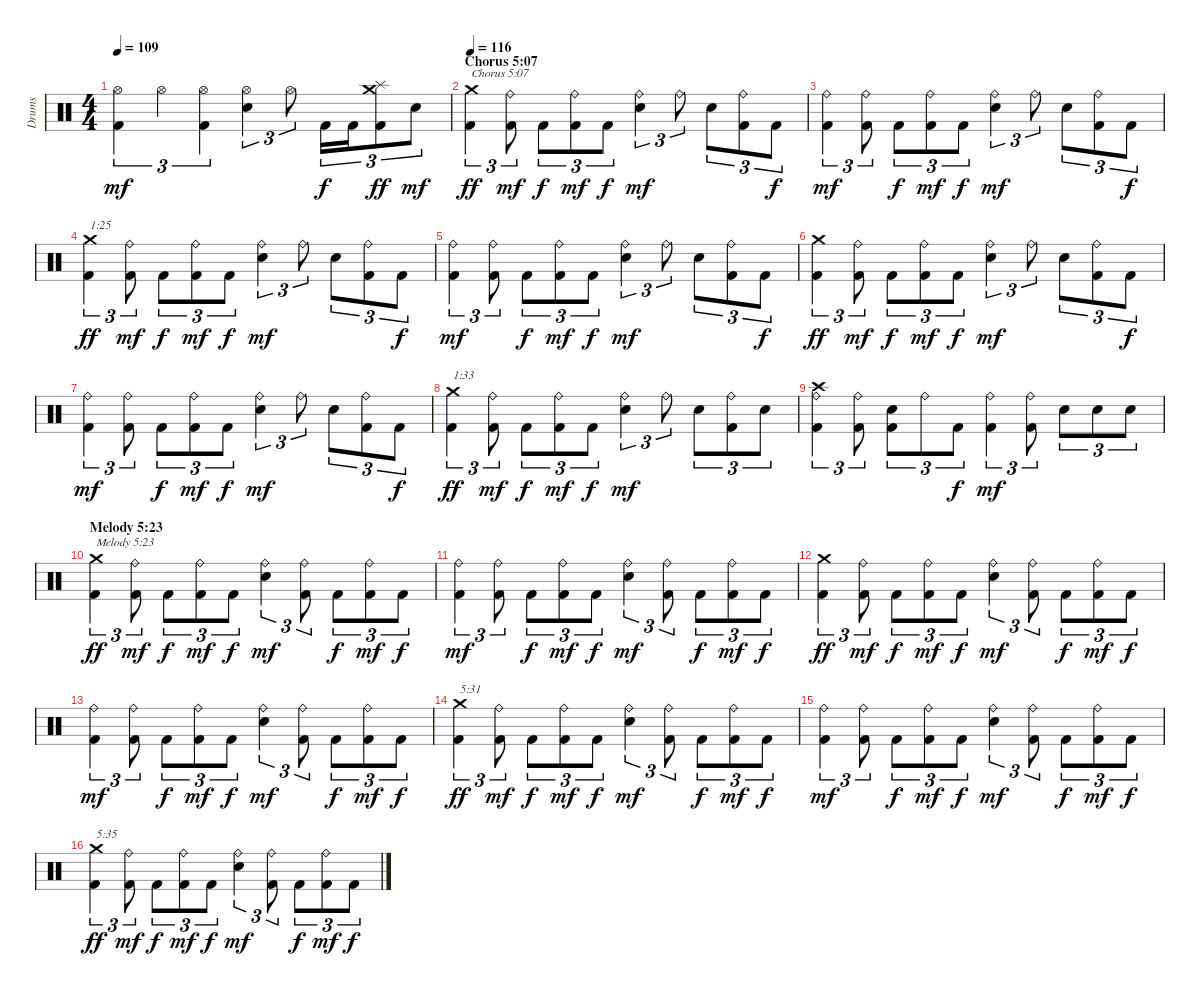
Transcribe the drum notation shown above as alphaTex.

\track ("Drums" "Drums") {instrument percussion}
\staff {score}
\articulation defaults
\ts (4 4)
\tempo 109
\clef neutral
\ks c
("Kick (hit) 2" "Hi-Hat (open)").4{tu (3 2) dy mf} "Hi-Hat (open)".4{tu (3 2)} ("Kick (hit) 2" "Hi-Hat (open)").4{tu (3 2)} ("Electric Snare (hit)" "Hi-Hat (open)").4{tu (3 2)} "Hi-Hat (open)".8{tu (3 2)} "Kick (hit) 2".16{tu (3 2) dy f} "Kick (hit) 2".16{tu (3 2)} ("Kick (hit) 2" "Splash (hit)" "Crash medium (hit)").8{tu (3 2) dy ff} "Electric Snare (hit)".8{tu (3 2) dy mf} |
\section ("" "Chorus 5:07")
\tempo 116
("Kick (hit) 2" "Crash medium (hit)").4{tu (3 2) txt "Chorus 5:07" dy ff} ("Kick (hit) 2" "Ride (bell)").8{tu (3 2) dy mf} "Kick (hit) 2".8{tu (3 2) dy f} ("Kick (hit) 2" "Ride (bell)").8{tu (3 2) dy mf} "Kick (hit) 2".8{tu (3 2) dy f} ("Electric Snare (hit)" "Ride (bell)").4{tu (3 2) dy mf} "Ride (bell)".8{tu (3 2)} "Electric Snare (hit)".8{tu (3 2)} ("Kick (hit) 2" "Ride (bell)").8{tu (3 2)} "Kick (hit) 2".8{tu (3 2) dy f} |
("Kick (hit) 2" "Ride (bell)").4{tu (3 2) dy mf} ("Kick (hit) 2" "Ride (bell)").8{tu (3 2)} "Kick (hit) 2".8{tu (3 2) dy f} ("Kick (hit) 2" "Ride (bell)").8{tu (3 2) dy mf} "Kick (hit) 2".8{tu (3 2) dy f} ("Electric Snare (hit)" "Ride (bell)").4{tu (3 2) dy mf} "Ride (bell)".8{tu (3 2)} "Electric Snare (hit)".8{tu (3 2)} ("Kick (hit) 2" "Ride (bell)").8{tu (3 2)} "Kick (hit) 2".8{tu (3 2) dy f} |
("Kick (hit) 2" "Crash medium (hit)").4{tu (3 2) txt "1:25" dy ff} ("Kick (hit) 2" "Ride (bell)").8{tu (3 2) dy mf} "Kick (hit) 2".8{tu (3 2) dy f} ("Kick (hit) 2" "Ride (bell)").8{tu (3 2) dy mf} "Kick (hit) 2".8{tu (3 2) dy f} ("Electric Snare (hit)" "Ride (bell)").4{tu (3 2) dy mf} "Ride (bell)".8{tu (3 2)} "Electric Snare (hit)".8{tu (3 2)} ("Kick (hit) 2" "Ride (bell)").8{tu (3 2)} "Kick (hit) 2".8{tu (3 2) dy f} |
("Kick (hit) 2" "Ride (bell)").4{tu (3 2) dy mf} ("Kick (hit) 2" "Ride (bell)").8{tu (3 2)} "Kick (hit) 2".8{tu (3 2) dy f} ("Kick (hit) 2" "Ride (bell)").8{tu (3 2) dy mf} "Kick (hit) 2".8{tu (3 2) dy f} ("Electric Snare (hit)" "Ride (bell)").4{tu (3 2) dy mf} "Ride (bell)".8{tu (3 2)} "Electric Snare (hit)".8{tu (3 2)} ("Kick (hit) 2" "Ride (bell)").8{tu (3 2)} "Kick (hit) 2".8{tu (3 2) dy f} |
("Kick (hit) 2" "Crash medium (hit)").4{tu (3 2) dy ff} ("Kick (hit) 2" "Ride (bell)").8{tu (3 2) dy mf} "Kick (hit) 2".8{tu (3 2) dy f} ("Kick (hit) 2" "Ride (bell)").8{tu (3 2) dy mf} "Kick (hit) 2".8{tu (3 2) dy f} ("Electric Snare (hit)" "Ride (bell)").4{tu (3 2) dy mf} "Ride (bell)".8{tu (3 2)} "Electric Snare (hit)".8{tu (3 2)} ("Kick (hit) 2" "Ride (bell)").8{tu (3 2)} "Kick (hit) 2".8{tu (3 2) dy f} |
("Kick (hit) 2" "Ride (bell)").4{tu (3 2) dy mf} ("Kick (hit) 2" "Ride (bell)").8{tu (3 2)} "Kick (hit) 2".8{tu (3 2) dy f} ("Kick (hit) 2" "Ride (bell)").8{tu (3 2) dy mf} "Kick (hit) 2".8{tu (3 2) dy f} ("Electric Snare (hit)" "Ride (bell)").4{tu (3 2) dy mf} "Ride (bell)".8{tu (3 2)} "Electric Snare (hit)".8{tu (3 2)} ("Kick (hit) 2" "Ride (bell)").8{tu (3 2)} "Kick (hit) 2".8{tu (3 2) dy f} |
("Kick (hit) 2" "Crash medium (hit)").4{tu (3 2) txt "1:33" dy ff} ("Kick (hit) 2" "Ride (bell)").8{tu (3 2) dy mf} "Kick (hit) 2".8{tu (3 2) dy f} ("Kick (hit) 2" "Ride (bell)").8{tu (3 2) dy mf} "Kick (hit) 2".8{tu (3 2) dy f} ("Electric Snare (hit)" "Ride (bell)").4{tu (3 2) dy mf} "Ride (bell)".8{tu (3 2)} "Electric Snare (hit)".8{tu (3 2)} ("Kick (hit) 2" "Ride (bell)").8{tu (3 2)} "Electric Snare (hit)".8{tu (3 2)} |
("Kick (hit) 2" "Ride (bell)" "Crash high (hit)").4{tu (3 2)} ("Kick (hit) 2" "Ride (bell)").8{tu (3 2)} ("Kick (hit) 2" "Electric Snare (hit)").8{tu (3 2)} "Ride (bell)".8{tu (3 2)} "Kick (hit) 2".8{tu (3 2) dy f} ("Kick (hit) 2" "Ride (bell)").4{tu (3 2) dy mf} ("Kick (hit) 2" "Ride (bell)").8{tu (3 2)} "Electric Snare (hit)".8{tu (3 2)} "Electric Snare (hit)".8{tu (3 2)} "Electric Snare (hit)".8{tu (3 2)} |
\section ("" "Melody 5:23")
("Kick (hit) 2" "Crash medium (hit)").4{tu (3 2) txt "Melody 5:23" dy ff} ("Kick (hit) 2" "Ride (bell)").8{tu (3 2) dy mf} "Kick (hit) 2".8{tu (3 2) dy f} ("Kick (hit) 2" "Ride (bell)").8{tu (3 2) dy mf} "Kick (hit) 2".8{tu (3 2) dy f} ("Electric Snare (hit)" "Ride (bell)").4{tu (3 2) dy mf} ("Kick (hit) 2" "Ride (bell)").8{tu (3 2)} "Kick (hit) 2".8{tu (3 2) dy f} ("Kick (hit) 2" "Ride (bell)").8{tu (3 2) dy mf} "Kick (hit) 2".8{tu (3 2) dy f} |
("Kick (hit) 2" "Ride (bell)").4{tu (3 2) dy mf} ("Kick (hit) 2" "Ride (bell)").8{tu (3 2)} "Kick (hit) 2".8{tu (3 2) dy f} ("Kick (hit) 2" "Ride (bell)").8{tu (3 2) dy mf} "Kick (hit) 2".8{tu (3 2) dy f} ("Electric Snare (hit)" "Ride (bell)").4{tu (3 2) dy mf} ("Kick (hit) 2" "Ride (bell)").8{tu (3 2)} "Kick (hit) 2".8{tu (3 2) dy f} ("Kick (hit) 2" "Ride (bell)").8{tu (3 2) dy mf} "Kick (hit) 2".8{tu (3 2) dy f} |
("Kick (hit) 2" "Crash medium (hit)").4{tu (3 2) dy ff} ("Kick (hit) 2" "Ride (bell)").8{tu (3 2) dy mf} "Kick (hit) 2".8{tu (3 2) dy f} ("Kick (hit) 2" "Ride (bell)").8{tu (3 2) dy mf} "Kick (hit) 2".8{tu (3 2) dy f} ("Electric Snare (hit)" "Ride (bell)").4{tu (3 2) dy mf} ("Kick (hit) 2" "Ride (bell)").8{tu (3 2)} "Kick (hit) 2".8{tu (3 2) dy f} ("Kick (hit) 2" "Ride (bell)").8{tu (3 2) dy mf} "Kick (hit) 2".8{tu (3 2) dy f} |
("Kick (hit) 2" "Ride (bell)").4{tu (3 2) dy mf} ("Kick (hit) 2" "Ride (bell)").8{tu (3 2)} "Kick (hit) 2".8{tu (3 2) dy f} ("Kick (hit) 2" "Ride (bell)").8{tu (3 2) dy mf} "Kick (hit) 2".8{tu (3 2) dy f} ("Electric Snare (hit)" "Ride (bell)").4{tu (3 2) dy mf} ("Kick (hit) 2" "Ride (bell)").8{tu (3 2)} "Kick (hit) 2".8{tu (3 2) dy f} ("Kick (hit) 2" "Ride (bell)").8{tu (3 2) dy mf} "Kick (hit) 2".8{tu (3 2) dy f} |
("Kick (hit) 2" "Crash medium (hit)").4{tu (3 2) txt "5:31" dy ff} ("Kick (hit) 2" "Ride (bell)").8{tu (3 2) dy mf} "Kick (hit) 2".8{tu (3 2) dy f} ("Kick (hit) 2" "Ride (bell)").8{tu (3 2) dy mf} "Kick (hit) 2".8{tu (3 2) dy f} ("Electric Snare (hit)" "Ride (bell)").4{tu (3 2) dy mf} ("Kick (hit) 2" "Ride (bell)").8{tu (3 2)} "Kick (hit) 2".8{tu (3 2) dy f} ("Kick (hit) 2" "Ride (bell)").8{tu (3 2) dy mf} "Kick (hit) 2".8{tu (3 2) dy f} |
("Kick (hit) 2" "Ride (bell)").4{tu (3 2) dy mf} ("Kick (hit) 2" "Ride (bell)").8{tu (3 2)} "Kick (hit) 2".8{tu (3 2) dy f} ("Kick (hit) 2" "Ride (bell)").8{tu (3 2) dy mf} "Kick (hit) 2".8{tu (3 2) dy f} ("Electric Snare (hit)" "Ride (bell)").4{tu (3 2) dy mf} ("Kick (hit) 2" "Ride (bell)").8{tu (3 2)} "Kick (hit) 2".8{tu (3 2) dy f} ("Kick (hit) 2" "Ride (bell)").8{tu (3 2) dy mf} "Kick (hit) 2".8{tu (3 2) dy f} |
("Kick (hit) 2" "Crash medium (hit)").4{tu (3 2) txt "5:35" dy ff} ("Kick (hit) 2" "Ride (bell)").8{tu (3 2) dy mf} "Kick (hit) 2".8{tu (3 2) dy f} ("Kick (hit) 2" "Ride (bell)").8{tu (3 2) dy mf} "Kick (hit) 2".8{tu (3 2) dy f} ("Electric Snare (hit)" "Ride (bell)").4{tu (3 2) dy mf} ("Kick (hit) 2" "Ride (bell)").8{tu (3 2)} "Kick (hit) 2".8{tu (3 2) dy f} ("Kick (hit) 2" "Ride (bell)").8{tu (3 2) dy mf} "Kick (hit) 2".8{tu (3 2) dy f}
